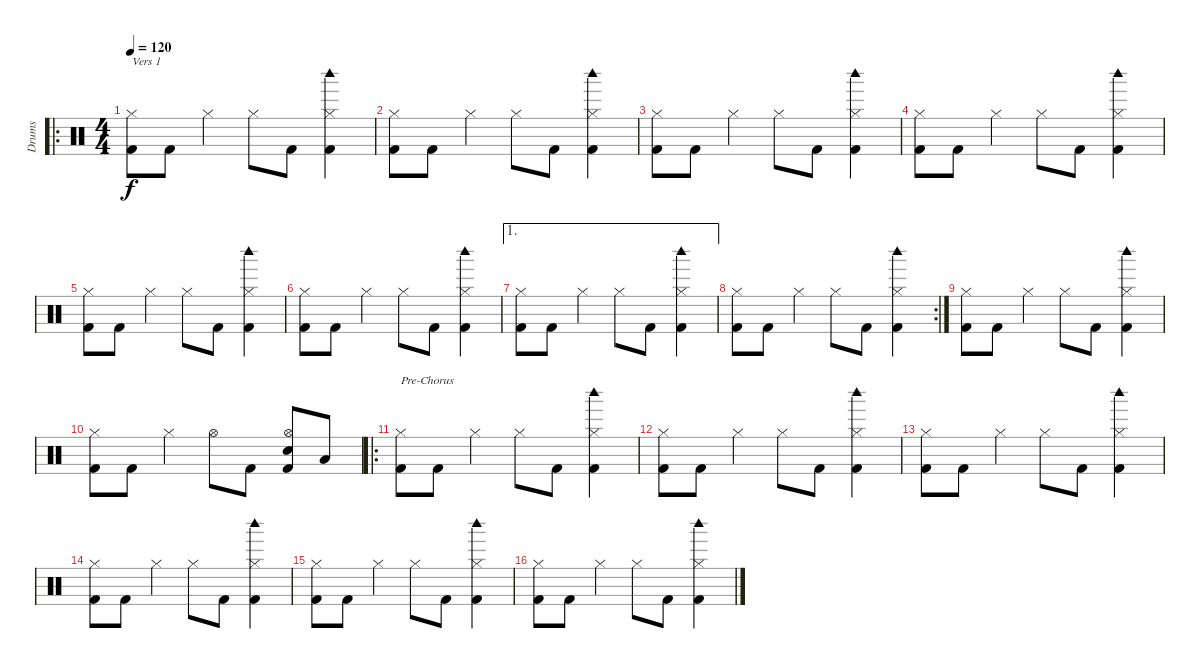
\track ("Drums" "Drums") {instrument percussion}
\staff {score}
\articulation defaults
\ro
\ts (4 4)
\tempo 120
\clef neutral
\ks c
("Hi-Hat (closed)" "Kick (hit) 2").8{txt "Vers 1" dy f} "Kick (hit) 2".8 "Hi-Hat (closed)".4 "Hi-Hat (closed)".8 "Kick (hit) 2".8 ("Hi-Hat (closed)" "Woodblock high (hit)" "Kick (hit) 2").4 |
("Hi-Hat (closed)" "Kick (hit) 2").8 "Kick (hit) 2".8 "Hi-Hat (closed)".4 "Hi-Hat (closed)".8 "Kick (hit) 2".8 ("Hi-Hat (closed)" "Woodblock high (hit)" "Kick (hit) 2").4 |
("Hi-Hat (closed)" "Kick (hit) 2").8 "Kick (hit) 2".8 "Hi-Hat (closed)".4 "Hi-Hat (closed)".8 "Kick (hit) 2".8 ("Hi-Hat (closed)" "Woodblock high (hit)" "Kick (hit) 2").4 |
("Hi-Hat (closed)" "Kick (hit) 2").8 "Kick (hit) 2".8 "Hi-Hat (closed)".4 "Hi-Hat (closed)".8 "Kick (hit) 2".8 ("Hi-Hat (closed)" "Woodblock high (hit)" "Kick (hit) 2").4 |
("Hi-Hat (closed)" "Kick (hit) 2").8 "Kick (hit) 2".8 "Hi-Hat (closed)".4 "Hi-Hat (closed)".8 "Kick (hit) 2".8 ("Hi-Hat (closed)" "Woodblock high (hit)" "Kick (hit) 2").4 |
("Hi-Hat (closed)" "Kick (hit) 2").8 "Kick (hit) 2".8 "Hi-Hat (closed)".4 "Hi-Hat (closed)".8 "Kick (hit) 2".8 ("Hi-Hat (closed)" "Woodblock high (hit)" "Kick (hit) 2").4 |
\ae 1
("Hi-Hat (closed)" "Kick (hit) 2").8 "Kick (hit) 2".8 "Hi-Hat (closed)".4 "Hi-Hat (closed)".8 "Kick (hit) 2".8 ("Hi-Hat (closed)" "Woodblock high (hit)" "Kick (hit) 2").4 |
\rc 2
("Hi-Hat (closed)" "Kick (hit) 2").8 "Kick (hit) 2".8 "Hi-Hat (closed)".4 "Hi-Hat (closed)".8 "Kick (hit) 2".8 ("Hi-Hat (closed)" "Woodblock high (hit)" "Kick (hit) 2").4 |
("Hi-Hat (closed)" "Kick (hit) 2").8 "Kick (hit) 2".8 "Hi-Hat (closed)".4 "Hi-Hat (closed)".8 "Kick (hit) 2".8 ("Hi-Hat (closed)" "Woodblock high (hit)" "Kick (hit) 2").4 |
("Hi-Hat (closed)" "Kick (hit) 2").8 "Kick (hit) 2".8 "Hi-Hat (closed)".4 "Hi-Hat (open)".8 "Kick (hit) 2".8 ("Hi-Hat (open)" "Snare (hit) 2" "Kick (hit) 2").8 "Low Tom (hit)".8 |
\ro
("Hi-Hat (closed)" "Kick (hit) 2").8{txt "Pre-Chorus"} "Kick (hit) 2".8 "Hi-Hat (closed)".4 "Hi-Hat (closed)".8 "Kick (hit) 2".8 ("Hi-Hat (closed)" "Woodblock high (hit)" "Kick (hit) 2").4 |
("Hi-Hat (closed)" "Kick (hit) 2").8 "Kick (hit) 2".8 "Hi-Hat (closed)".4 "Hi-Hat (closed)".8 "Kick (hit) 2".8 ("Hi-Hat (closed)" "Woodblock high (hit)" "Kick (hit) 2").4 |
("Hi-Hat (closed)" "Kick (hit) 2").8 "Kick (hit) 2".8 "Hi-Hat (closed)".4 "Hi-Hat (closed)".8 "Kick (hit) 2".8 ("Hi-Hat (closed)" "Woodblock high (hit)" "Kick (hit) 2").4 |
("Hi-Hat (closed)" "Kick (hit) 2").8 "Kick (hit) 2".8 "Hi-Hat (closed)".4 "Hi-Hat (closed)".8 "Kick (hit) 2".8 ("Hi-Hat (closed)" "Woodblock high (hit)" "Kick (hit) 2").4 |
("Hi-Hat (closed)" "Kick (hit) 2").8 "Kick (hit) 2".8 "Hi-Hat (closed)".4 "Hi-Hat (closed)".8 "Kick (hit) 2".8 ("Hi-Hat (closed)" "Woodblock high (hit)" "Kick (hit) 2").4 |
("Hi-Hat (closed)" "Kick (hit) 2").8 "Kick (hit) 2".8 "Hi-Hat (closed)".4 "Hi-Hat (closed)".8 "Kick (hit) 2".8 ("Hi-Hat (closed)" "Woodblock high (hit)" "Kick (hit) 2").4
